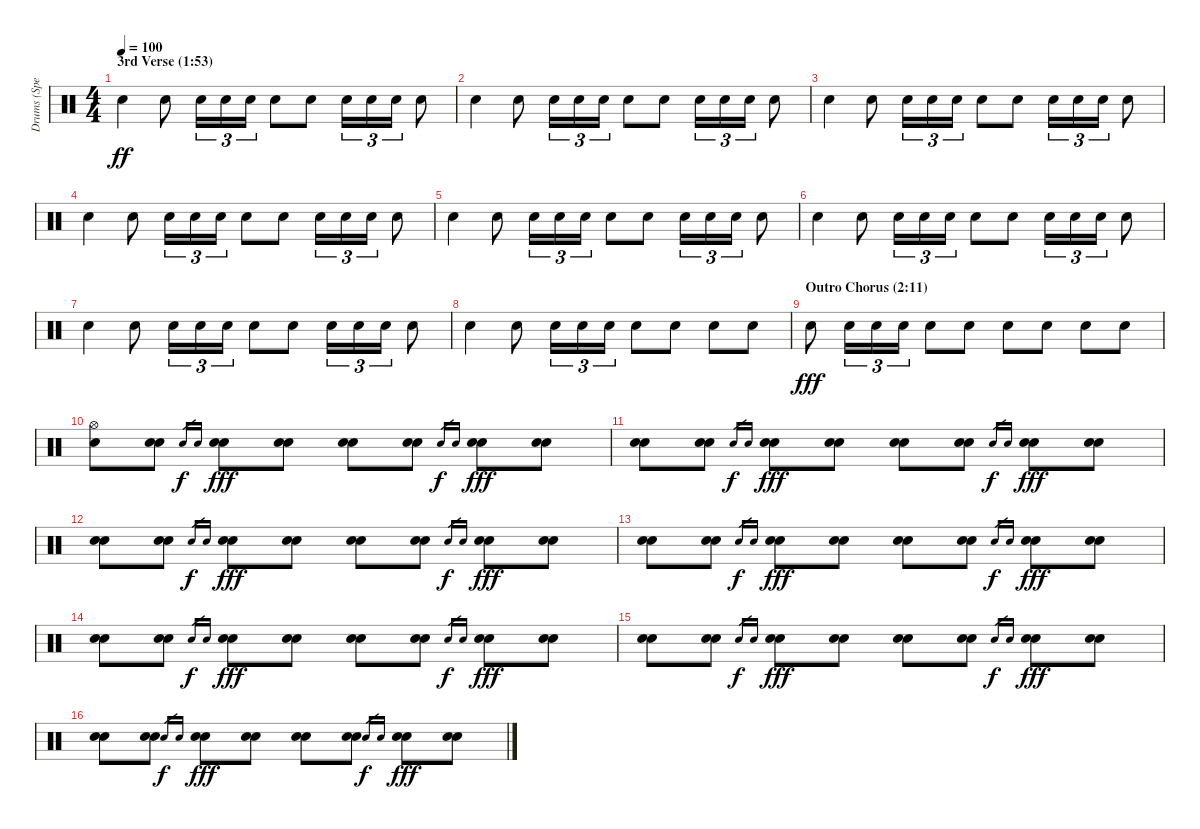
\track ("Drums (Spencer Dryden)" "Drums (Spe") {instrument percussion}
\staff {score}
\articulation defaults
\ts (4 4)
\section ("" "3rd Verse (1:53)")
\tempo 100
\clef neutral
\ks c "Snare (hit) 2".4{dy ff} "Snare (hit) 2".8 "Snare (hit) 2".16{tu (3 2)} "Snare (hit) 2".16{tu (3 2)} "Snare (hit) 2".16{tu (3 2)} "Snare (hit) 2".8 "Snare (hit) 2".8 "Snare (hit) 2".16{tu (3 2)} "Snare (hit) 2".16{tu (3 2)} "Snare (hit) 2".16{tu (3 2)} "Snare (hit) 2".8
|
"Snare (hit) 2".4 "Snare (hit) 2".8 "Snare (hit) 2".16{tu (3 2)} "Snare (hit) 2".16{tu (3 2)} "Snare (hit) 2".16{tu (3 2)} "Snare (hit) 2".8 "Snare (hit) 2".8 "Snare (hit) 2".16{tu (3 2)} "Snare (hit) 2".16{tu (3 2)} "Snare (hit) 2".16{tu (3 2)} "Snare (hit) 2".8 |
"Snare (hit) 2".4 "Snare (hit) 2".8 "Snare (hit) 2".16{tu (3 2)} "Snare (hit) 2".16{tu (3 2)} "Snare (hit) 2".16{tu (3 2)} "Snare (hit) 2".8 "Snare (hit) 2".8 "Snare (hit) 2".16{tu (3 2)} "Snare (hit) 2".16{tu (3 2)} "Snare (hit) 2".16{tu (3 2)} "Snare (hit) 2".8 |
"Snare (hit) 2".4 "Snare (hit) 2".8 "Snare (hit) 2".16{tu (3 2)} "Snare (hit) 2".16{tu (3 2)} "Snare (hit) 2".16{tu (3 2)} "Snare (hit) 2".8 "Snare (hit) 2".8 "Snare (hit) 2".16{tu (3 2)} "Snare (hit) 2".16{tu (3 2)} "Snare (hit) 2".16{tu (3 2)} "Snare (hit) 2".8 |
"Snare (hit) 2".4 "Snare (hit) 2".8 "Snare (hit) 2".16{tu (3 2)} "Snare (hit) 2".16{tu (3 2)} "Snare (hit) 2".16{tu (3 2)} "Snare (hit) 2".8 "Snare (hit) 2".8 "Snare (hit) 2".16{tu (3 2)} "Snare (hit) 2".16{tu (3 2)} "Snare (hit) 2".16{tu (3 2)} "Snare (hit) 2".8 |
"Snare (hit) 2".4 "Snare (hit) 2".8 "Snare (hit) 2".16{tu (3 2)} "Snare (hit) 2".16{tu (3 2)} "Snare (hit) 2".16{tu (3 2)} "Snare (hit) 2".8 "Snare (hit) 2".8 "Snare (hit) 2".16{tu (3 2)} "Snare (hit) 2".16{tu (3 2)} "Snare (hit) 2".16{tu (3 2)} "Snare (hit) 2".8 |
"Snare (hit) 2".4 "Snare (hit) 2".8 "Snare (hit) 2".16{tu (3 2)} "Snare (hit) 2".16{tu (3 2)} "Snare (hit) 2".16{tu (3 2)} "Snare (hit) 2".8 "Snare (hit) 2".8 "Snare (hit) 2".16{tu (3 2)} "Snare (hit) 2".16{tu (3 2)} "Snare (hit) 2".16{tu (3 2)} "Snare (hit) 2".8 |
"Snare (hit) 2".4 "Snare (hit) 2".8 "Snare (hit) 2".16{tu (3 2)} "Snare (hit) 2".16{tu (3 2)} "Snare (hit) 2".16{tu (3 2)} "Snare (hit) 2".8 "Snare (hit) 2".8 "Snare (hit) 2".8 "Snare (hit) 2".8 |
\section ("" "Outro Chorus (2:11)")
"Snare (hit) 2".8{dy fff} "Snare (hit) 2".16{tu (3 2)} "Snare (hit) 2".16{tu (3 2)} "Snare (hit) 2".16{tu (3 2)} "Snare (hit) 2".8 "Snare (hit) 2".8 "Snare (hit) 2".8 "Snare (hit) 2".8 "Snare (hit) 2".8 "Snare (hit) 2".8 |
("Hi-Hat (open)" "Snare (hit) 2").8 ("Snare (hit) 2" "Snare (hit) 2").8 "Snare (hit) 2".16{gr dy f} "Snare (hit) 2".16{gr} ("Snare (hit) 2" "Snare (hit) 2").8{dy fff} ("Snare (hit) 2" "Snare (hit) 2").8 ("Snare (hit) 2" "Snare (hit) 2").8 ("Snare (hit) 2" "Snare (hit) 2").8 "Snare (hit) 2".16{gr dy f} "Snare (hit) 2".16{gr} ("Snare (hit) 2" "Snare (hit) 2").8{dy fff} ("Snare (hit) 2" "Snare (hit) 2").8 |
("Snare (hit) 2" "Snare (hit) 2").8 ("Snare (hit) 2" "Snare (hit) 2").8 "Snare (hit) 2".16{gr dy f} "Snare (hit) 2".16{gr} ("Snare (hit) 2" "Snare (hit) 2").8{dy fff} ("Snare (hit) 2" "Snare (hit) 2").8 ("Snare (hit) 2" "Snare (hit) 2").8 ("Snare (hit) 2" "Snare (hit) 2").8 "Snare (hit) 2".16{gr dy f} "Snare (hit) 2".16{gr} ("Snare (hit) 2" "Snare (hit) 2").8{dy fff} ("Snare (hit) 2" "Snare (hit) 2").8 |
("Snare (hit) 2" "Snare (hit) 2").8 ("Snare (hit) 2" "Snare (hit) 2").8 "Snare (hit) 2".16{gr dy f} "Snare (hit) 2".16{gr} ("Snare (hit) 2" "Snare (hit) 2").8{dy fff} ("Snare (hit) 2" "Snare (hit) 2").8 ("Snare (hit) 2" "Snare (hit) 2").8 ("Snare (hit) 2" "Snare (hit) 2").8 "Snare (hit) 2".16{gr dy f} "Snare (hit) 2".16{gr} ("Snare (hit) 2" "Snare (hit) 2").8{dy fff} ("Snare (hit) 2" "Snare (hit) 2").8 |
("Snare (hit) 2" "Snare (hit) 2").8 ("Snare (hit) 2" "Snare (hit) 2").8 "Snare (hit) 2".16{gr dy f} "Snare (hit) 2".16{gr} ("Snare (hit) 2" "Snare (hit) 2").8{dy fff} ("Snare (hit) 2" "Snare (hit) 2").8 ("Snare (hit) 2" "Snare (hit) 2").8 ("Snare (hit) 2" "Snare (hit) 2").8 "Snare (hit) 2".16{gr dy f} "Snare (hit) 2".16{gr} ("Snare (hit) 2" "Snare (hit) 2").8{dy fff} ("Snare (hit) 2" "Snare (hit) 2").8 |
("Snare (hit) 2" "Snare (hit) 2").8 ("Snare (hit) 2" "Snare (hit) 2").8 "Snare (hit) 2".16{gr dy f} "Snare (hit) 2".16{gr} ("Snare (hit) 2" "Snare (hit) 2").8{dy fff} ("Snare (hit) 2" "Snare (hit) 2").8 ("Snare (hit) 2" "Snare (hit) 2").8 ("Snare (hit) 2" "Snare (hit) 2").8 "Snare (hit) 2".16{gr dy f} "Snare (hit) 2".16{gr} ("Snare (hit) 2" "Snare (hit) 2").8{dy fff} ("Snare (hit) 2" "Snare (hit) 2").8 |
("Snare (hit) 2" "Snare (hit) 2").8 ("Snare (hit) 2" "Snare (hit) 2").8 "Snare (hit) 2".16{gr dy f} "Snare (hit) 2".16{gr} ("Snare (hit) 2" "Snare (hit) 2").8{dy fff} ("Snare (hit) 2" "Snare (hit) 2").8 ("Snare (hit) 2" "Snare (hit) 2").8 ("Snare (hit) 2" "Snare (hit) 2").8 "Snare (hit) 2".16{gr dy f} "Snare (hit) 2".16{gr} ("Snare (hit) 2" "Snare (hit) 2").8{dy fff} ("Snare (hit) 2" "Snare (hit) 2").8 |
("Snare (hit) 2" "Snare (hit) 2").8 ("Snare (hit) 2" "Snare (hit) 2").8 "Snare (hit) 2".16{gr dy f} "Snare (hit) 2".16{gr} ("Snare (hit) 2" "Snare (hit) 2").8{dy fff} ("Snare (hit) 2" "Snare (hit) 2").8 ("Snare (hit) 2" "Snare (hit) 2").8 ("Snare (hit) 2" "Snare (hit) 2").8 "Snare (hit) 2".16{gr dy f} "Snare (hit) 2".16{gr} ("Snare (hit) 2" "Snare (hit) 2").8{dy fff} ("Snare (hit) 2" "Snare (hit) 2").8
